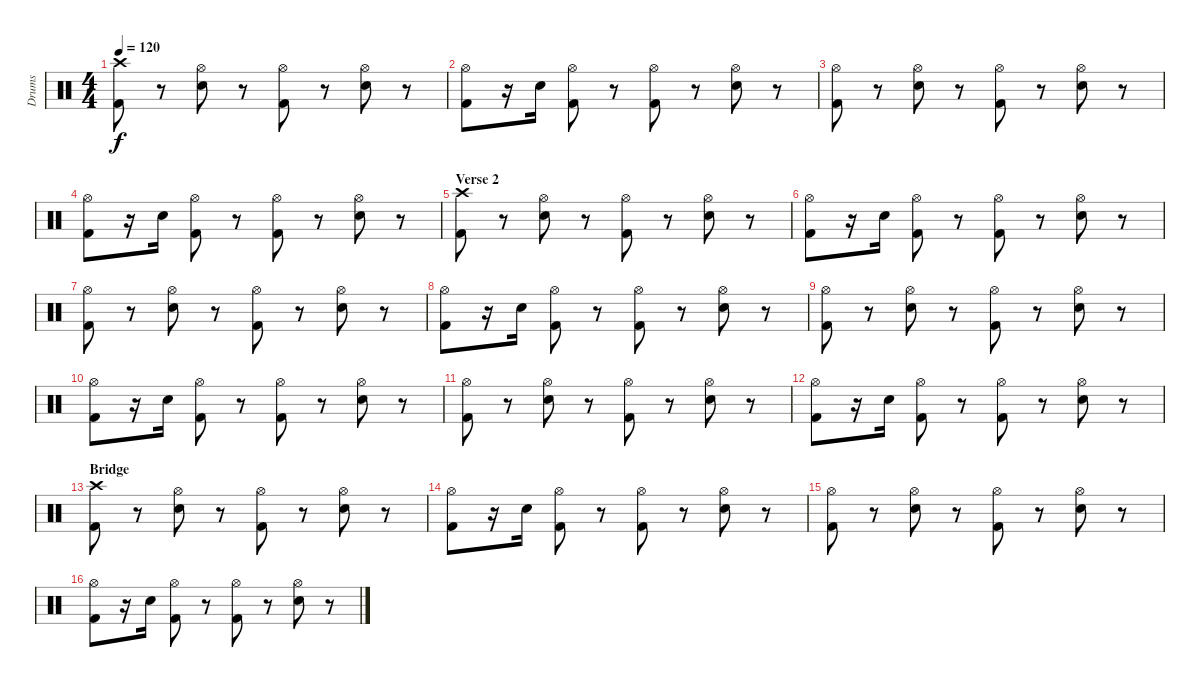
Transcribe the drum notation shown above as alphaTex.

\track ("Drums" "Drums") {instrument percussion}
\staff {score}
\articulation defaults
\ts (4 4)
\tempo 120
\clef neutral
\ks c
("Crash high (hit)" "Kick (hit) 2").8{dy f} r.8 ("Hi-Hat (open)" "Electric Snare (hit)").8 r.8 ("Hi-Hat (open)" "Kick (hit) 2").8 r.8 ("Hi-Hat (open)" "Electric Snare (hit)").8 r.8 |
("Hi-Hat (open)" "Kick (hit) 2").8 r.16 "Electric Snare (hit)".16 ("Hi-Hat (open)" "Kick (hit) 2").8 r.8 ("Hi-Hat (open)" "Kick (hit) 2").8 r.8 ("Hi-Hat (open)" "Electric Snare (hit)").8 r.8 |
("Hi-Hat (open)" "Kick (hit) 2").8 r.8 ("Hi-Hat (open)" "Electric Snare (hit)").8 r.8 ("Hi-Hat (open)" "Kick (hit) 2").8 r.8 ("Hi-Hat (open)" "Electric Snare (hit)").8 r.8 |
("Hi-Hat (open)" "Kick (hit) 2").8 r.16 "Electric Snare (hit)".16 ("Hi-Hat (open)" "Kick (hit) 2").8 r.8 ("Hi-Hat (open)" "Kick (hit) 2").8 r.8 ("Hi-Hat (open)" "Electric Snare (hit)").8 r.8 |
\section ("" "Verse 2")
("Crash high (hit)" "Kick (hit) 2").8 r.8 ("Hi-Hat (open)" "Electric Snare (hit)").8 r.8 ("Hi-Hat (open)" "Kick (hit) 2").8 r.8 ("Hi-Hat (open)" "Electric Snare (hit)").8 r.8 |
("Hi-Hat (open)" "Kick (hit) 2").8 r.16 "Electric Snare (hit)".16 ("Hi-Hat (open)" "Kick (hit) 2").8 r.8 ("Hi-Hat (open)" "Kick (hit) 2").8 r.8 ("Hi-Hat (open)" "Electric Snare (hit)").8 r.8 |
("Hi-Hat (open)" "Kick (hit) 2").8 r.8 ("Hi-Hat (open)" "Electric Snare (hit)").8 r.8 ("Hi-Hat (open)" "Kick (hit) 2").8 r.8 ("Hi-Hat (open)" "Electric Snare (hit)").8 r.8 |
("Hi-Hat (open)" "Kick (hit) 2").8 r.16 "Electric Snare (hit)".16 ("Hi-Hat (open)" "Kick (hit) 2").8 r.8 ("Hi-Hat (open)" "Kick (hit) 2").8 r.8 ("Hi-Hat (open)" "Electric Snare (hit)").8 r.8 |
("Hi-Hat (open)" "Kick (hit) 2").8 r.8 ("Hi-Hat (open)" "Electric Snare (hit)").8 r.8 ("Hi-Hat (open)" "Kick (hit) 2").8 r.8 ("Hi-Hat (open)" "Electric Snare (hit)").8 r.8 |
("Hi-Hat (open)" "Kick (hit) 2").8 r.16 "Electric Snare (hit)".16 ("Hi-Hat (open)" "Kick (hit) 2").8 r.8 ("Hi-Hat (open)" "Kick (hit) 2").8 r.8 ("Hi-Hat (open)" "Electric Snare (hit)").8 r.8 |
("Hi-Hat (open)" "Kick (hit) 2").8 r.8 ("Hi-Hat (open)" "Electric Snare (hit)").8 r.8 ("Hi-Hat (open)" "Kick (hit) 2").8 r.8 ("Hi-Hat (open)" "Electric Snare (hit)").8 r.8 |
("Hi-Hat (open)" "Kick (hit) 2").8 r.16 "Electric Snare (hit)".16 ("Hi-Hat (open)" "Kick (hit) 2").8 r.8 ("Hi-Hat (open)" "Kick (hit) 2").8 r.8 ("Hi-Hat (open)" "Electric Snare (hit)").8 r.8 |
\section ("" "Bridge")
("Crash high (hit)" "Kick (hit) 2").8 r.8 ("Hi-Hat (open)" "Electric Snare (hit)").8 r.8 ("Hi-Hat (open)" "Kick (hit) 2").8 r.8 ("Hi-Hat (open)" "Electric Snare (hit)").8 r.8 |
("Hi-Hat (open)" "Kick (hit) 2").8 r.16 "Electric Snare (hit)".16 ("Hi-Hat (open)" "Kick (hit) 2").8 r.8 ("Hi-Hat (open)" "Kick (hit) 2").8 r.8 ("Hi-Hat (open)" "Electric Snare (hit)").8 r.8 |
("Hi-Hat (open)" "Kick (hit) 2").8 r.8 ("Hi-Hat (open)" "Electric Snare (hit)").8 r.8 ("Hi-Hat (open)" "Kick (hit) 2").8 r.8 ("Hi-Hat (open)" "Electric Snare (hit)").8 r.8 |
("Hi-Hat (open)" "Kick (hit) 2").8 r.16 "Electric Snare (hit)".16 ("Hi-Hat (open)" "Kick (hit) 2").8 r.8 ("Hi-Hat (open)" "Kick (hit) 2").8 r.8 ("Hi-Hat (open)" "Electric Snare (hit)").8 r.8
